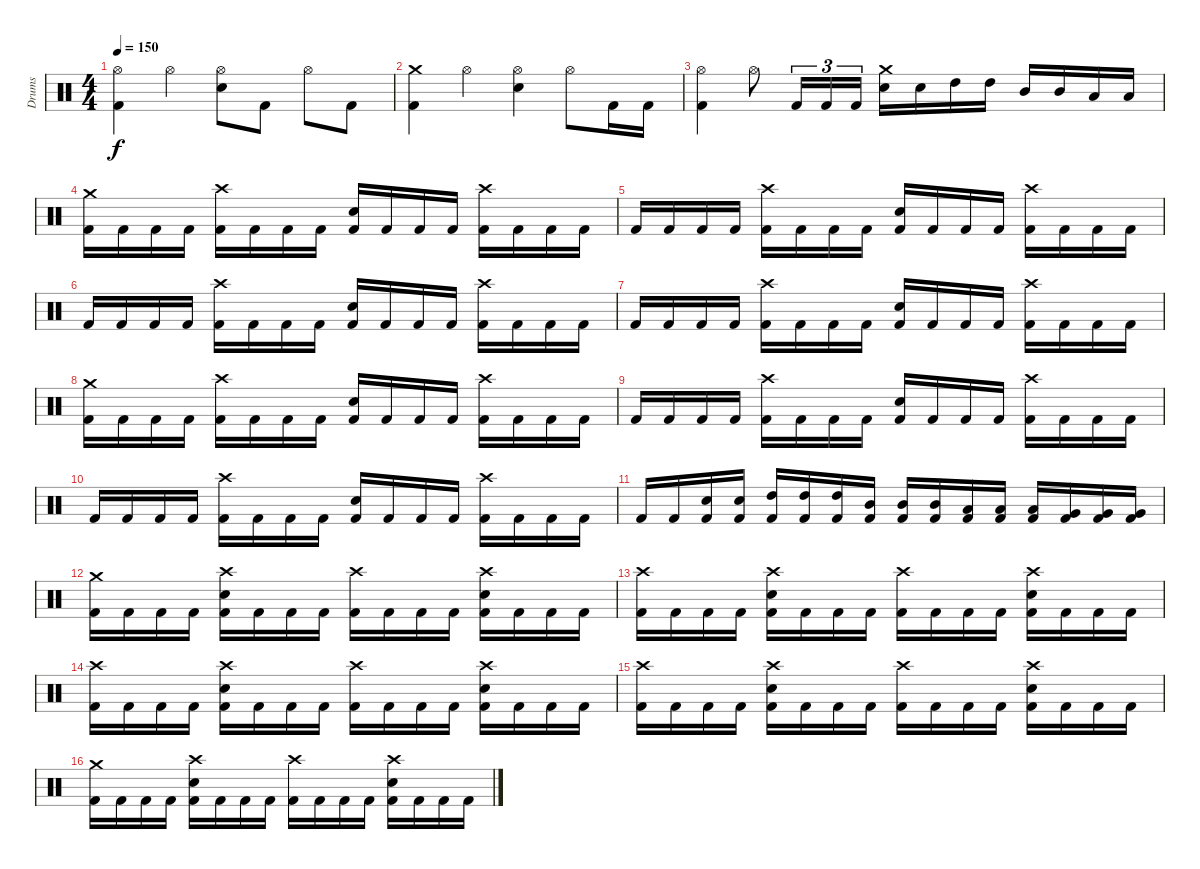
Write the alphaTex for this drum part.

\track ("Drums" "Drums") {instrument percussion}
\staff {score}
\articulation defaults
\ts (4 4)
\tempo 150
\clef neutral
\ks c
("Kick (hit) 2" "Hi-Hat (open)").4{dy f} "Hi-Hat (open)".4 ("Electric Snare (hit)" "Hi-Hat (open)").8 "Kick (hit) 2".8 "Hi-Hat (open)".8 "Kick (hit) 2".8 |
("Kick (hit) 2" "Crash medium (hit)").4 "Hi-Hat (open)".4 ("Electric Snare (hit)" "Hi-Hat (open)").4 "Hi-Hat (open)".8 "Kick (hit) 2".16 "Kick (hit) 2".16 |
("Kick (hit) 2" "Hi-Hat (open)").4 "Hi-Hat (open)".8 "Kick (hit) 2".16{tu (3 2)} "Kick (hit) 2".16{tu (3 2)} "Kick (hit) 2".16{tu (3 2)} ("Electric Snare (hit)" "Crash medium (hit)").16 "Electric Snare (hit)".16 "High Tom (hit)".16 "High Tom (hit)".16 "Mid Tom (hit)".16 "Mid Tom (hit)".16 "Low Tom (hit)".16 "Low Tom (hit)".16 |
("Kick (hit) 2" "Crash medium (hit)").16 "Kick (hit) 2".16 "Kick (hit) 2".16 "Kick (hit) 2".16 ("Kick (hit) 2" "Crash high (hit)").16 "Kick (hit) 2".16 "Kick (hit) 2".16 "Kick (hit) 2".16 ("Kick (hit) 2" "Electric Snare (hit)").16 "Kick (hit) 2".16 "Kick (hit) 2".16 "Kick (hit) 2".16 ("Kick (hit) 2" "Crash high (hit)").16 "Kick (hit) 2".16 "Kick (hit) 2".16 "Kick (hit) 2".16 |
"Kick (hit) 2".16 "Kick (hit) 2".16 "Kick (hit) 2".16 "Kick (hit) 2".16 ("Kick (hit) 2" "Crash high (hit)").16 "Kick (hit) 2".16 "Kick (hit) 2".16 "Kick (hit) 2".16 ("Kick (hit) 2" "Electric Snare (hit)").16 "Kick (hit) 2".16 "Kick (hit) 2".16 "Kick (hit) 2".16 ("Kick (hit) 2" "Crash high (hit)").16 "Kick (hit) 2".16 "Kick (hit) 2".16 "Kick (hit) 2".16 |
"Kick (hit) 2".16 "Kick (hit) 2".16 "Kick (hit) 2".16 "Kick (hit) 2".16 ("Kick (hit) 2" "Crash high (hit)").16 "Kick (hit) 2".16 "Kick (hit) 2".16 "Kick (hit) 2".16 ("Kick (hit) 2" "Electric Snare (hit)").16 "Kick (hit) 2".16 "Kick (hit) 2".16 "Kick (hit) 2".16 ("Kick (hit) 2" "Crash high (hit)").16 "Kick (hit) 2".16 "Kick (hit) 2".16 "Kick (hit) 2".16 |
"Kick (hit) 2".16 "Kick (hit) 2".16 "Kick (hit) 2".16 "Kick (hit) 2".16 ("Kick (hit) 2" "Crash high (hit)").16 "Kick (hit) 2".16 "Kick (hit) 2".16 "Kick (hit) 2".16 ("Kick (hit) 2" "Electric Snare (hit)").16 "Kick (hit) 2".16 "Kick (hit) 2".16 "Kick (hit) 2".16 ("Kick (hit) 2" "Crash high (hit)").16 "Kick (hit) 2".16 "Kick (hit) 2".16 "Kick (hit) 2".16 |
("Kick (hit) 2" "Crash medium (hit)").16 "Kick (hit) 2".16 "Kick (hit) 2".16 "Kick (hit) 2".16 ("Kick (hit) 2" "Crash high (hit)").16 "Kick (hit) 2".16 "Kick (hit) 2".16 "Kick (hit) 2".16 ("Kick (hit) 2" "Electric Snare (hit)").16 "Kick (hit) 2".16 "Kick (hit) 2".16 "Kick (hit) 2".16 ("Kick (hit) 2" "Crash high (hit)").16 "Kick (hit) 2".16 "Kick (hit) 2".16 "Kick (hit) 2".16 |
"Kick (hit) 2".16 "Kick (hit) 2".16 "Kick (hit) 2".16 "Kick (hit) 2".16 ("Kick (hit) 2" "Crash high (hit)").16 "Kick (hit) 2".16 "Kick (hit) 2".16 "Kick (hit) 2".16 ("Kick (hit) 2" "Electric Snare (hit)").16 "Kick (hit) 2".16 "Kick (hit) 2".16 "Kick (hit) 2".16 ("Kick (hit) 2" "Crash high (hit)").16 "Kick (hit) 2".16 "Kick (hit) 2".16 "Kick (hit) 2".16 |
"Kick (hit) 2".16 "Kick (hit) 2".16 "Kick (hit) 2".16 "Kick (hit) 2".16 ("Kick (hit) 2" "Crash high (hit)").16 "Kick (hit) 2".16 "Kick (hit) 2".16 "Kick (hit) 2".16 ("Kick (hit) 2" "Electric Snare (hit)").16 "Kick (hit) 2".16 "Kick (hit) 2".16 "Kick (hit) 2".16 ("Kick (hit) 2" "Crash high (hit)").16 "Kick (hit) 2".16 "Kick (hit) 2".16 "Kick (hit) 2".16 |
"Kick (hit) 2".16 "Kick (hit) 2".16 ("Kick (hit) 2" "Electric Snare (hit)").16 ("Kick (hit) 2" "Electric Snare (hit)").16 ("Kick (hit) 2" "High Tom (hit)").16 ("Kick (hit) 2" "High Tom (hit)").16 ("Kick (hit) 2" "High Tom (hit)").16 ("Kick (hit) 2" "Mid Tom (hit)").16 ("Kick (hit) 2" "Mid Tom (hit)").16 ("Kick (hit) 2" "Mid Tom (hit)").16 ("Kick (hit) 2" "Low Tom (hit)").16 ("Kick (hit) 2" "Low Tom (hit)").16 ("Kick (hit) 2" "Low Tom (hit)").16 ("Kick (hit) 2" "Very Low Tom (hit)").16 ("Kick (hit) 2" "Very Low Tom (hit)").16 ("Kick (hit) 2" "Very Low Tom (hit)").16 |
("Kick (hit) 2" "Crash medium (hit)").16 "Kick (hit) 2".16 "Kick (hit) 2".16 "Kick (hit) 2".16 ("Kick (hit) 2" "Electric Snare (hit)" "Crash high (hit)").16 "Kick (hit) 2".16 "Kick (hit) 2".16 "Kick (hit) 2".16 ("Kick (hit) 2" "Crash high (hit)").16 "Kick (hit) 2".16 "Kick (hit) 2".16 "Kick (hit) 2".16 ("Kick (hit) 2" "Electric Snare (hit)" "Crash high (hit)").16 "Kick (hit) 2".16 "Kick (hit) 2".16 "Kick (hit) 2".16 |
("Kick (hit) 2" "Crash high (hit)").16 "Kick (hit) 2".16 "Kick (hit) 2".16 "Kick (hit) 2".16 ("Kick (hit) 2" "Electric Snare (hit)" "Crash high (hit)").16 "Kick (hit) 2".16 "Kick (hit) 2".16 "Kick (hit) 2".16 ("Kick (hit) 2" "Crash high (hit)").16 "Kick (hit) 2".16 "Kick (hit) 2".16 "Kick (hit) 2".16 ("Kick (hit) 2" "Electric Snare (hit)" "Crash high (hit)").16 "Kick (hit) 2".16 "Kick (hit) 2".16 "Kick (hit) 2".16 |
("Kick (hit) 2" "Crash high (hit)").16 "Kick (hit) 2".16 "Kick (hit) 2".16 "Kick (hit) 2".16 ("Kick (hit) 2" "Electric Snare (hit)" "Crash high (hit)").16 "Kick (hit) 2".16 "Kick (hit) 2".16 "Kick (hit) 2".16 ("Kick (hit) 2" "Crash high (hit)").16 "Kick (hit) 2".16 "Kick (hit) 2".16 "Kick (hit) 2".16 ("Kick (hit) 2" "Electric Snare (hit)" "Crash high (hit)").16 "Kick (hit) 2".16 "Kick (hit) 2".16 "Kick (hit) 2".16 |
("Kick (hit) 2" "Crash high (hit)").16 "Kick (hit) 2".16 "Kick (hit) 2".16 "Kick (hit) 2".16 ("Kick (hit) 2" "Electric Snare (hit)" "Crash high (hit)").16 "Kick (hit) 2".16 "Kick (hit) 2".16 "Kick (hit) 2".16 ("Kick (hit) 2" "Crash high (hit)").16 "Kick (hit) 2".16 "Kick (hit) 2".16 "Kick (hit) 2".16 ("Kick (hit) 2" "Electric Snare (hit)" "Crash high (hit)").16 "Kick (hit) 2".16 "Kick (hit) 2".16 "Kick (hit) 2".16 |
("Kick (hit) 2" "Crash medium (hit)").16 "Kick (hit) 2".16 "Kick (hit) 2".16 "Kick (hit) 2".16 ("Kick (hit) 2" "Electric Snare (hit)" "Crash high (hit)").16 "Kick (hit) 2".16 "Kick (hit) 2".16 "Kick (hit) 2".16 ("Kick (hit) 2" "Crash high (hit)").16 "Kick (hit) 2".16 "Kick (hit) 2".16 "Kick (hit) 2".16 ("Kick (hit) 2" "Electric Snare (hit)" "Crash high (hit)").16 "Kick (hit) 2".16 "Kick (hit) 2".16 "Kick (hit) 2".16
